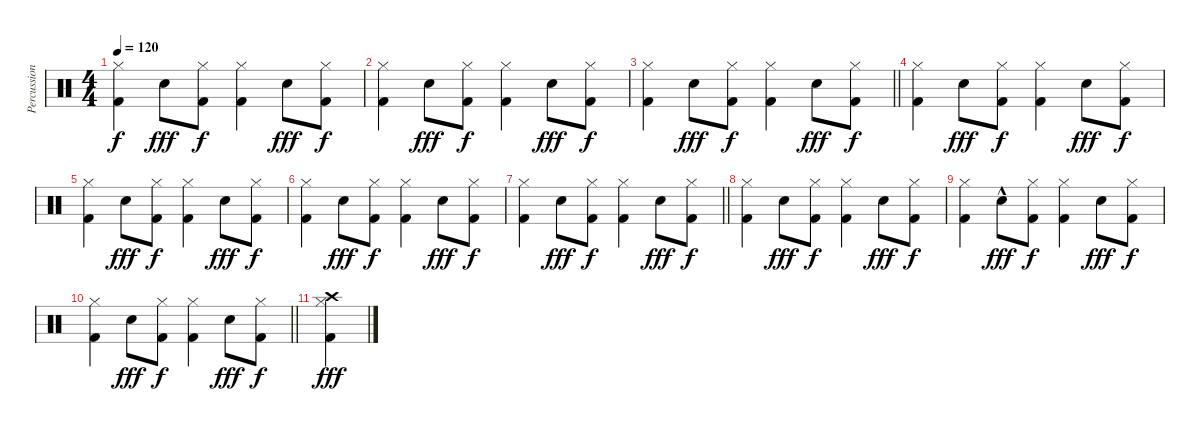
\track ("Percussion" "Percussion") {instrument percussion}
\staff {score}
\articulation defaults
\ts (4 4)
\tempo 120
\clef neutral
\ks c
("Kick (hit) 2" "Hi-Hat (closed)").4{dy f} "Snare (hit) 2".8{dy fff} ("Kick (hit) 2" "Hi-Hat (closed)").8{dy f} ("Kick (hit) 2" "Hi-Hat (closed)").4 "Snare (hit) 2".8{dy fff} ("Kick (hit) 2" "Hi-Hat (closed)").8{dy f} |
("Kick (hit) 2" "Hi-Hat (closed)").4 "Snare (hit) 2".8{dy fff} ("Kick (hit) 2" "Hi-Hat (closed)").8{dy f} ("Kick (hit) 2" "Hi-Hat (closed)").4 "Snare (hit) 2".8{dy fff} ("Kick (hit) 2" "Hi-Hat (closed)").8{dy f} |
\barLineRight lightlight
("Kick (hit) 2" "Hi-Hat (closed)").4 "Snare (hit) 2".8{dy fff} ("Kick (hit) 2" "Hi-Hat (closed)").8{dy f} ("Kick (hit) 2" "Hi-Hat (closed)").4 "Snare (hit) 2".8{dy fff} ("Kick (hit) 2" "Hi-Hat (closed)").8{dy f} |
("Kick (hit) 2" "Hi-Hat (closed)").4 "Snare (hit) 2".8{dy fff} ("Kick (hit) 2" "Hi-Hat (closed)").8{dy f} ("Kick (hit) 2" "Hi-Hat (closed)").4 "Snare (hit) 2".8{dy fff} ("Kick (hit) 2" "Hi-Hat (closed)").8{dy f} |
("Kick (hit) 2" "Hi-Hat (closed)").4 "Snare (hit) 2".8{dy fff} ("Kick (hit) 2" "Hi-Hat (closed)").8{dy f} ("Kick (hit) 2" "Hi-Hat (closed)").4 "Snare (hit) 2".8{dy fff} ("Kick (hit) 2" "Hi-Hat (closed)").8{dy f} |
("Kick (hit) 2" "Hi-Hat (closed)").4 "Snare (hit) 2".8{dy fff} ("Kick (hit) 2" "Hi-Hat (closed)").8{dy f} ("Kick (hit) 2" "Hi-Hat (closed)").4 "Snare (hit) 2".8{dy fff} ("Kick (hit) 2" "Hi-Hat (closed)").8{dy f} |
\barLineRight lightlight
("Kick (hit) 2" "Hi-Hat (closed)").4 "Snare (hit) 2".8{dy fff} ("Kick (hit) 2" "Hi-Hat (closed)").8{dy f} ("Kick (hit) 2" "Hi-Hat (closed)").4 "Snare (hit) 2".8{dy fff} ("Kick (hit) 2" "Hi-Hat (closed)").8{dy f} |
("Kick (hit) 2" "Hi-Hat (closed)").4 "Snare (hit) 2".8{dy fff} ("Kick (hit) 2" "Hi-Hat (closed)").8{dy f} ("Kick (hit) 2" "Hi-Hat (closed)").4 "Snare (hit) 2".8{dy fff} ("Kick (hit) 2" "Hi-Hat (closed)").8{dy f} |
("Kick (hit) 2" "Hi-Hat (closed)").4 "Snare (hit) 2"{hac}.8{dy fff} ("Kick (hit) 2" "Hi-Hat (closed)").8{dy f} ("Kick (hit) 2" "Hi-Hat (closed)").4 "Snare (hit) 2".8{dy fff} ("Kick (hit) 2" "Hi-Hat (closed)").8{dy f} |
\barLineRight lightlight
("Kick (hit) 2" "Hi-Hat (closed)").4 "Snare (hit) 2".8{dy fff} ("Kick (hit) 2" "Hi-Hat (closed)").8{dy f} ("Kick (hit) 2" "Hi-Hat (closed)").4 "Snare (hit) 2".8{dy fff} ("Kick (hit) 2" "Hi-Hat (closed)").8{dy f} |
("Kick (hit) 2" "Hi-Hat (closed)" "Crash high (hit)").4{dy fff}
